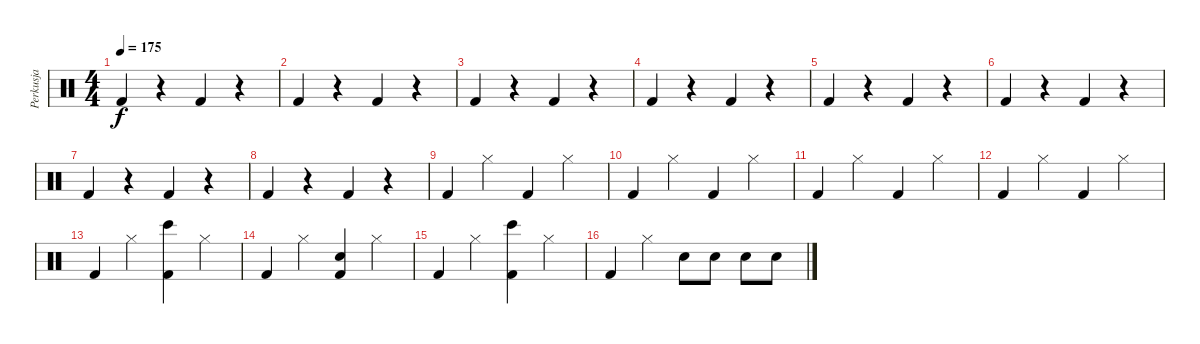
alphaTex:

\track ("Perkusja" "Perkusja") {instrument percussion}
\staff {score}
\articulation defaults
\ts (4 4)
\tempo 175
\clef neutral
\ks c "Kick (hit) 2".4{dy f}
r.4 "Kick (hit) 2".4 r.4 |
"Kick (hit) 2".4 r.4 "Kick (hit) 2".4 r.4 |
"Kick (hit) 2".4 r.4 "Kick (hit) 2".4 r.4 |
"Kick (hit) 2".4 r.4 "Kick (hit) 2".4 r.4 |
"Kick (hit) 2".4 r.4 "Kick (hit) 2".4 r.4 |
"Kick (hit) 2".4 r.4 "Kick (hit) 2".4 r.4 |
"Kick (hit) 2".4 r.4 "Kick (hit) 2".4 r.4 |
"Kick (hit) 2".4 r.4 "Kick (hit) 2".4 r.4 |
"Kick (hit) 2".4 "Hi-Hat (closed)".4 "Kick (hit) 2".4 "Hi-Hat (closed)".4 |
"Kick (hit) 2".4 "Hi-Hat (closed)".4 "Kick (hit) 2".4 "Hi-Hat (closed)".4 |
"Kick (hit) 2".4 "Hi-Hat (closed)".4 "Kick (hit) 2".4 "Hi-Hat (closed)".4 |
"Kick (hit) 2".4 "Hi-Hat (closed)".4 "Kick (hit) 2".4 "Hi-Hat (closed)".4 |
"Kick (hit) 2".4 "Hi-Hat (closed)".4 ("Bongo High (hit)" "Kick (hit) 2").4 "Hi-Hat (closed)".4 |
"Kick (hit) 2".4 "Hi-Hat (closed)".4 ("Snare (hit) 2" "Kick (hit) 2").4 "Hi-Hat (closed)".4 |
"Kick (hit) 2".4 "Hi-Hat (closed)".4 ("Bongo High (hit)" "Kick (hit) 2").4 "Hi-Hat (closed)".4 |
"Kick (hit) 2".4 "Hi-Hat (closed)".4 "Snare (hit) 2".8 "Snare (hit) 2".8 "Snare (hit) 2".8 "Snare (hit) 2".8
